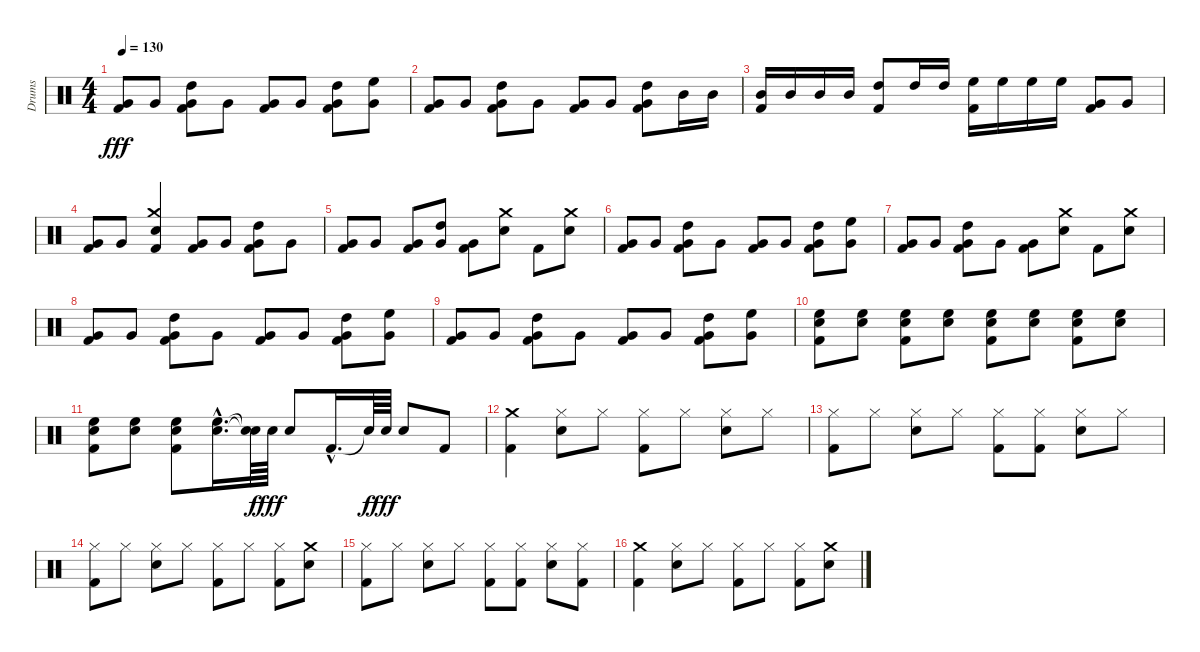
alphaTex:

\track ("Drums" "Drums") {instrument percussion}
\staff {score}
\articulation defaults
\ts (4 4)
\tempo 130
\clef neutral
\ks c
("Very Low Tom (hit)" "Kick (hit) 2").8{dy fff} "Very Low Tom (hit)".8 ("High Tom (hit)" "Very Low Tom (hit)" "Kick (hit) 2").8 "Very Low Tom (hit)".8 ("Very Low Tom (hit)" "Kick (hit) 2").8 "Very Low Tom (hit)".8 ("High Tom (hit)" "Very Low Tom (hit)" "Kick (hit) 2").8 ("High Floor Tom (hit)" "Very Low Tom (hit)").8 |
("Very Low Tom (hit)" "Kick (hit) 2").8 "Very Low Tom (hit)".8 ("High Tom (hit)" "Very Low Tom (hit)" "Kick (hit) 2").8 "Very Low Tom (hit)".8 ("Very Low Tom (hit)" "Kick (hit) 2").8 "Very Low Tom (hit)".8 ("High Tom (hit)" "Very Low Tom (hit)" "Kick (hit) 2").8 "Mid Tom (hit)".16 "Mid Tom (hit)".16 |
("Mid Tom (hit)" "Kick (hit) 2").16 "Mid Tom (hit)".16 "Mid Tom (hit)".16 "Mid Tom (hit)".16 ("High Tom (hit)" "Kick (hit) 2").8 "High Tom (hit)".16 "High Tom (hit)".16 ("High Floor Tom (hit)" "Kick (hit) 2").16 "High Floor Tom (hit)".16 "High Floor Tom (hit)".16 "High Floor Tom (hit)".16 ("Very Low Tom (hit)" "Kick (hit) 2").8 "Very Low Tom (hit)".8 |
("Very Low Tom (hit)" "Kick (hit) 2").8 "Very Low Tom (hit)".8 ("Crash medium (hit)" "Snare (hit) 2" "Kick (hit) 2").4 ("Very Low Tom (hit)" "Kick (hit) 2").8 "Very Low Tom (hit)".8 ("High Tom (hit)" "Very Low Tom (hit)" "Kick (hit) 2").8 "Very Low Tom (hit)".8 |
("Very Low Tom (hit)" "Kick (hit) 2").8 "Very Low Tom (hit)".8 ("Very Low Tom (hit)" "Kick (hit) 2").8 ("High Tom (hit)" "Very Low Tom (hit)").8 ("Very Low Tom (hit)" "Kick (hit) 2").8 ("Snare (hit) 2" "Crash medium (hit)").8 "Kick (hit) 2".8 ("Crash medium (hit)" "Snare (hit) 2").8 |
("Very Low Tom (hit)" "Kick (hit) 2").8 "Very Low Tom (hit)".8 ("High Tom (hit)" "Very Low Tom (hit)" "Kick (hit) 2").8 "Very Low Tom (hit)".8 ("Very Low Tom (hit)" "Kick (hit) 2").8 "Very Low Tom (hit)".8 ("High Tom (hit)" "Very Low Tom (hit)" "Kick (hit) 2").8 ("High Floor Tom (hit)" "Very Low Tom (hit)").8 |
("Very Low Tom (hit)" "Kick (hit) 2").8 "Very Low Tom (hit)".8 ("High Tom (hit)" "Very Low Tom (hit)" "Kick (hit) 2").8 "Very Low Tom (hit)".8 ("Very Low Tom (hit)" "Kick (hit) 2").8 ("Snare (hit) 2" "Crash medium (hit)").8 "Kick (hit) 2".8 ("Snare (hit) 2" "Crash medium (hit)").8 |
("Very Low Tom (hit)" "Kick (hit) 2").8 "Very Low Tom (hit)".8 ("High Tom (hit)" "Very Low Tom (hit)" "Kick (hit) 2").8 "Very Low Tom (hit)".8 ("Very Low Tom (hit)" "Kick (hit) 2").8 "Very Low Tom (hit)".8 ("High Tom (hit)" "Very Low Tom (hit)" "Kick (hit) 2").8 ("High Floor Tom (hit)" "Very Low Tom (hit)").8 |
("Very Low Tom (hit)" "Kick (hit) 2").8 "Very Low Tom (hit)".8 ("High Tom (hit)" "Very Low Tom (hit)" "Kick (hit) 2").8 "Very Low Tom (hit)".8 ("Very Low Tom (hit)" "Kick (hit) 2").8 "Very Low Tom (hit)".8 ("High Tom (hit)" "Very Low Tom (hit)" "Kick (hit) 2").8 ("High Floor Tom (hit)" "Very Low Tom (hit)").8 |
("High Floor Tom (hit)" "Snare (hit) 2" "Kick (hit) 2").8 ("High Floor Tom (hit)" "Snare (hit) 2").8 ("High Floor Tom (hit)" "Snare (hit) 2" "Kick (hit) 2").8 ("High Floor Tom (hit)" "Snare (hit) 2").8 ("High Floor Tom (hit)" "Snare (hit) 2" "Kick (hit) 2").8 ("High Floor Tom (hit)" "Snare (hit) 2").8 ("High Floor Tom (hit)" "Snare (hit) 2" "Kick (hit) 2").8 ("High Floor Tom (hit)" "Snare (hit) 2").8 |
("Snare (hit) 2" "High Floor Tom (hit)" "Kick (hit) 2").8 ("Snare (hit) 2" "High Floor Tom (hit)").8 ("Snare (hit) 2" "High Floor Tom (hit)" "Kick (hit) 2").8 ("Snare (hit) 2"{hac} "High Floor Tom (hit)"{hac}).16{d} ("Snare (hit)"{t} "Snare (hit)"{t}).64{dy f} "Snare (hit) 2".64{dy fff} "Snare (hit) 2".8 "Kick (hit) 2"{hac}.16{d} "Snare (hit)"{t}.64{dy f} "Snare (hit) 2".64{dy fff} "Snare (hit) 2".8 "Kick (hit) 2".8 |
("Kick (hit) 2" "Crash medium (hit)").4 ("Snare (hit) 2" "Hi-Hat (closed)").8 "Hi-Hat (closed)".8 ("Hi-Hat (closed)" "Kick (hit) 2").8 "Hi-Hat (closed)".8 ("Snare (hit) 2" "Hi-Hat (closed)").8 "Hi-Hat (closed)".8 |
("Hi-Hat (closed)" "Kick (hit) 2").8 "Hi-Hat (closed)".8 ("Snare (hit) 2" "Hi-Hat (closed)").8 "Hi-Hat (closed)".8 ("Kick (hit) 2" "Hi-Hat (closed)").8 ("Kick (hit) 2" "Hi-Hat (closed)").8 ("Snare (hit) 2" "Hi-Hat (closed)").8 "Hi-Hat (closed)".8 |
("Hi-Hat (closed)" "Kick (hit) 2").8 "Hi-Hat (closed)".8 ("Snare (hit) 2" "Hi-Hat (closed)").8 "Hi-Hat (closed)".8 ("Hi-Hat (closed)" "Kick (hit) 2").8 "Hi-Hat (closed)".8 ("Hi-Hat (closed)" "Kick (hit) 2").8 ("Crash medium (hit)" "Snare (hit) 2").8 |
("Hi-Hat (closed)" "Kick (hit) 2").8 "Hi-Hat (closed)".8 ("Snare (hit) 2" "Hi-Hat (closed)").8 "Hi-Hat (closed)".8 ("Kick (hit) 2" "Hi-Hat (closed)").8 ("Kick (hit) 2" "Hi-Hat (closed)").8 ("Snare (hit) 2" "Hi-Hat (closed)").8 ("Kick (hit) 2" "Hi-Hat (closed)").8 |
("Kick (hit) 2" "Crash medium (hit)").4 ("Hi-Hat (closed)" "Snare (hit) 2").8 "Hi-Hat (closed)".8 ("Kick (hit) 2" "Hi-Hat (closed)").8 "Hi-Hat (closed)".8 ("Kick (hit) 2" "Hi-Hat (closed)").8 ("Crash medium (hit)" "Snare (hit) 2").8
